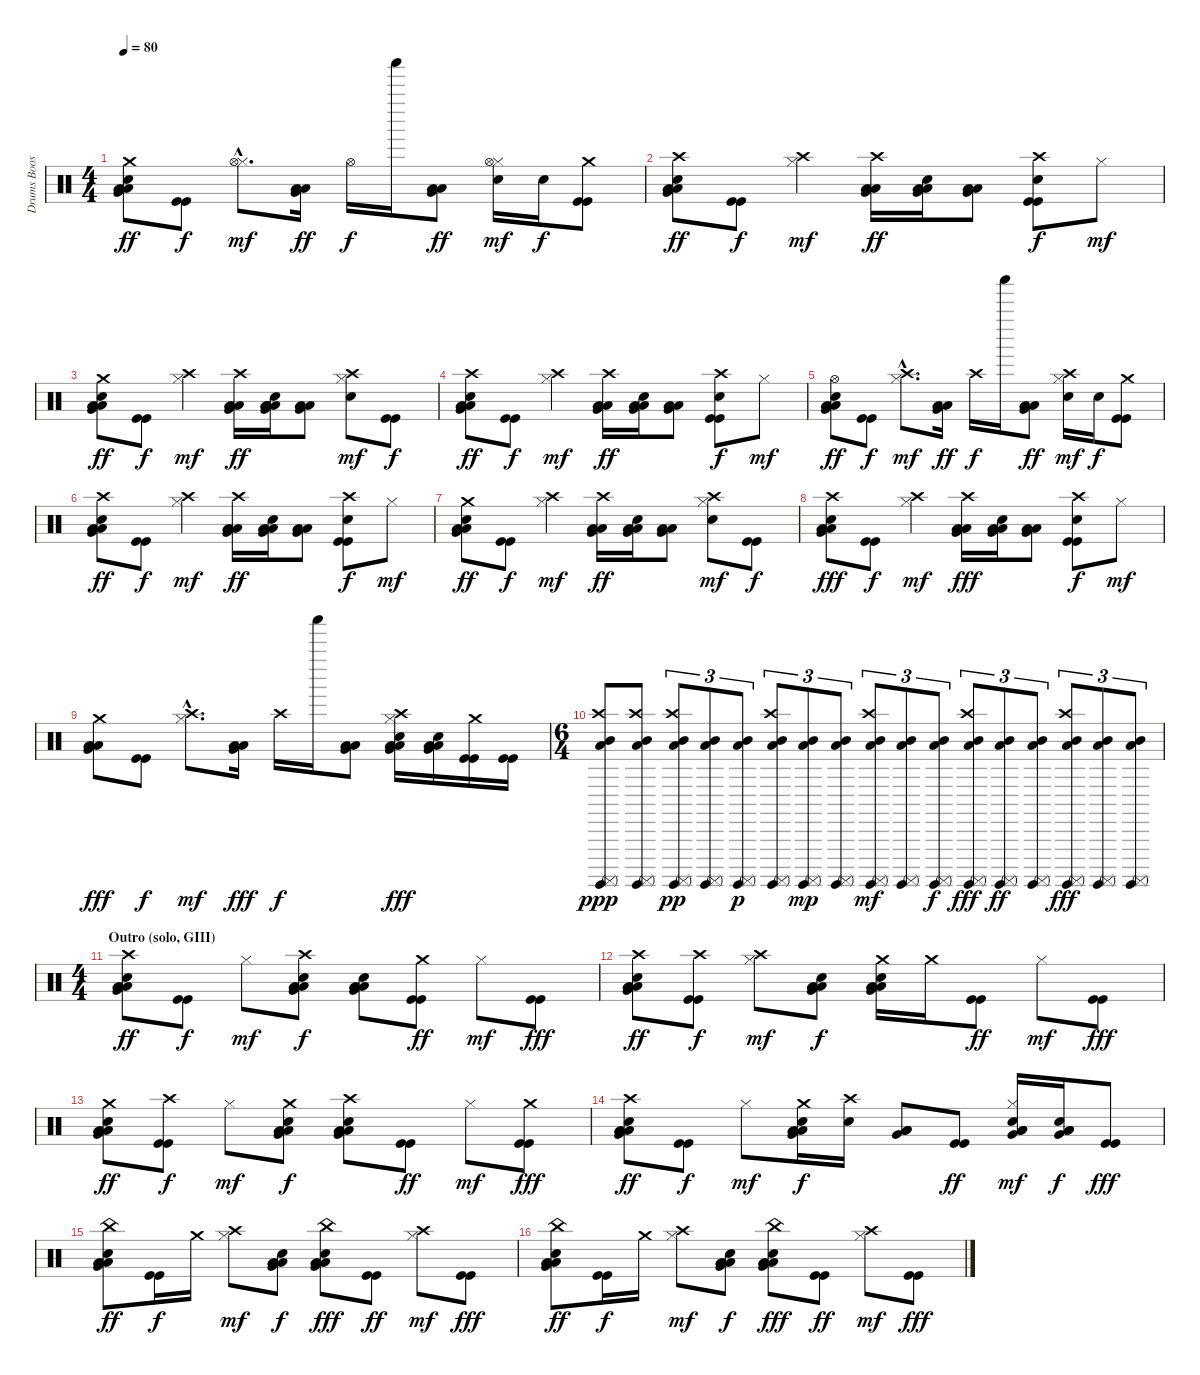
\track ("Drums Boost" "Drums Boos") {instrument percussion}
\staff {score}
\articulation defaults
\ts (4 4)
\tempo 80
\clef neutral
\ks c
("Crash medium (hit)" "Very Low Tom (hit)" "Low Floor Tom (hit)" "Snare (hit) 2" "Low Tom (hit)").8{dy ff} ("Kick (hit)" "Kick (hit)").8{dy f} ("Hi-Hat (closed)"{hac} "Hi-Hat (open)"{hac}).8{d dy mf} ("Very Low Tom (hit)" "Low Floor Tom (hit)" "Low Tom (hit)").16{dy ff} "Hi-Hat (open)".16{dy f} "Shaker (hit)".16 ("Very Low Tom (hit)" "Low Floor Tom (hit)" "Low Tom (hit)").8{dy ff} ("Hi-Hat (closed)" "Hi-Hat (open)" "Snare (hit) 2").16{dy mf} "Snare (hit) 2".16{dy f} ("Crash medium (hit)" "Kick (hit)" "Kick (hit)").8 |
("Crash high (hit)" "Very Low Tom (hit)" "Low Floor Tom (hit)" "Snare (hit) 2" "Low Tom (hit)").8{bd 60 dy ff} ("Kick (hit)" "Kick (hit)").8{dy f} ("Hi-Hat (closed)" "Crash high (hit)").4{dy mf} ("Crash high (hit)" "Very Low Tom (hit)" "Low Floor Tom (hit)" "Low Tom (hit)").16{dy ff} ("Very Low Tom (hit)" "Low Floor Tom (hit)" "Low Tom (hit)" "Snare (hit) 2").16 ("Very Low Tom (hit)" "Low Floor Tom (hit)" "Low Tom (hit)").8 ("Crash high (hit)" "Snare (hit) 2" "Kick (hit)" "Kick (hit)").8{dy f} "Hi-Hat (closed)".8{dy mf} |
("Crash medium (hit)" "Very Low Tom (hit)" "Low Floor Tom (hit)" "Snare (hit) 2" "Low Tom (hit)").8{bd 60 dy ff} ("Kick (hit)" "Kick (hit)").8{dy f} ("Hi-Hat (closed)" "Crash high (hit)").4{dy mf} ("Crash high (hit)" "Very Low Tom (hit)" "Low Floor Tom (hit)" "Low Tom (hit)").16{dy ff} ("Very Low Tom (hit)" "Low Floor Tom (hit)" "Low Tom (hit)" "Low Tom (hit)" "Snare (hit) 2").16 ("Very Low Tom (hit)" "Low Floor Tom (hit)" "Low Tom (hit)").8 ("Hi-Hat (closed)" "Crash high (hit)" "Snare (hit) 2").8{dy mf} ("Kick (hit)" "Kick (hit)").8{dy f} |
("Crash high (hit)" "Very Low Tom (hit)" "Low Floor Tom (hit)" "Snare (hit) 2" "Low Tom (hit)").8{bd 60 dy ff} ("Kick (hit)" "Kick (hit)").8{dy f} ("Hi-Hat (closed)" "Crash high (hit)").4{dy mf} ("Crash high (hit)" "Very Low Tom (hit)" "Low Floor Tom (hit)" "Low Tom (hit)").16{dy ff} ("Very Low Tom (hit)" "Low Floor Tom (hit)" "Low Tom (hit)" "Snare (hit) 2").16 ("Very Low Tom (hit)" "Low Floor Tom (hit)" "Low Tom (hit)").8 ("Crash high (hit)" "Snare (hit) 2" "Kick (hit)" "Kick (hit)").8{dy f} "Hi-Hat (closed)".8{dy mf} |
("Hi-Hat (open)" "Very Low Tom (hit)" "Low Floor Tom (hit)" "Snare (hit) 2" "Low Tom (hit)").8{dy ff} ("Kick (hit)" "Kick (hit)").8{dy f} ("Hi-Hat (closed)"{hac} "Crash high (hit)"{hac}).8{d dy mf} ("Very Low Tom (hit)" "Low Floor Tom (hit)" "Low Tom (hit)").16{dy ff} "Crash high (hit)".16{dy f} "Shaker (hit)".16 ("Very Low Tom (hit)" "Low Floor Tom (hit)" "Low Tom (hit)").8{dy ff} ("Hi-Hat (closed)" "Crash high (hit)" "Snare (hit) 2").16{dy mf} "Snare (hit) 2".16{dy f} ("Crash medium (hit)" "Kick (hit)" "Kick (hit)").8 |
("Crash high (hit)" "Very Low Tom (hit)" "Low Floor Tom (hit)" "Snare (hit) 2" "Low Tom (hit)").8{bd 60 dy ff} ("Kick (hit)" "Kick (hit)").8{dy f} ("Hi-Hat (closed)" "Crash high (hit)").4{dy mf} ("Crash high (hit)" "Very Low Tom (hit)" "Low Floor Tom (hit)" "Low Tom (hit)").16{dy ff} ("Very Low Tom (hit)" "Low Floor Tom (hit)" "Low Tom (hit)" "Snare (hit) 2").16 ("Very Low Tom (hit)" "Low Floor Tom (hit)" "Low Tom (hit)").8 ("Crash high (hit)" "Snare (hit) 2" "Kick (hit)" "Kick (hit)").8{dy f} "Hi-Hat (closed)".8{dy mf} |
("Crash medium (hit)" "Very Low Tom (hit)" "Low Floor Tom (hit)" "Snare (hit) 2" "Low Tom (hit)").8{bd 60 dy ff} ("Kick (hit)" "Kick (hit)").8{dy f} ("Hi-Hat (closed)" "Crash high (hit)").4{dy mf} ("Crash high (hit)" "Very Low Tom (hit)" "Low Floor Tom (hit)" "Low Tom (hit)").16{dy ff} ("Very Low Tom (hit)" "Low Floor Tom (hit)" "Low Tom (hit)" "Snare (hit) 2").16 ("Very Low Tom (hit)" "Low Floor Tom (hit)" "Low Tom (hit)").8 ("Hi-Hat (closed)" "Crash high (hit)" "Snare (hit) 2").8{dy mf} ("Kick (hit)" "Kick (hit)").8{dy f} |
("Crash high (hit)" "Very Low Tom (hit)" "Low Floor Tom (hit)" "Snare (hit) 2" "Low Tom (hit)").8{bd 60 dy fff} ("Kick (hit)" "Kick (hit)").8{dy f} ("Hi-Hat (closed)" "Crash high (hit)").4{dy mf} ("Crash high (hit)" "Very Low Tom (hit)" "Low Floor Tom (hit)" "Low Tom (hit)").16{dy fff} ("Very Low Tom (hit)" "Low Floor Tom (hit)" "Low Tom (hit)" "Snare (hit) 2").16 ("Very Low Tom (hit)" "Low Floor Tom (hit)" "Low Tom (hit)").8 ("Crash high (hit)" "Snare (hit) 2" "Kick (hit)" "Kick (hit)").8{dy f} "Hi-Hat (closed)".8{dy mf} |
("Crash medium (hit)" "Very Low Tom (hit)" "Low Floor Tom (hit)" "Low Tom (hit)").8{dy fff} ("Kick (hit)" "Kick (hit)").8{dy f} ("Hi-Hat (closed)"{hac} "Crash high (hit)"{hac}).8{d dy mf} ("Very Low Tom (hit)" "Low Floor Tom (hit)" "Low Tom (hit)").16{dy fff} "Crash high (hit)".16{dy f} "Shaker (hit)".16 ("Very Low Tom (hit)" "Low Floor Tom (hit)" "Low Tom (hit)").8 ("Hi-Hat (closed)" "Crash high (hit)" "Very Low Tom (hit)" "Low Floor Tom (hit)" "Snare (hit) 2" "Low Tom (hit)").16{dy fff} ("Very Low Tom (hit)" "Low Floor Tom (hit)" "Snare (hit) 2" "Low Tom (hit)").16 ("Crash medium (hit)" "Kick (hit)" "Kick (hit)").16 ("Kick (hit)" "Kick (hit)").16 |
\ts (6 4)
("Crash high (hit)" "Surdo (hit)" "Low Tom (hit)" "Mid Tom (hit)" "Surdo (mute)").8{dy ppp} ("Crash high (hit)" "Surdo (hit)" "Low Tom (hit)" "Mid Tom (hit)" "Surdo (mute)").8 ("Crash high (hit)" "Surdo (hit)" "Low Tom (hit)" "Mid Tom (hit)" "Surdo (mute)").8{tu (3 2) dy pp} ("Surdo (hit)" "Low Tom (hit)" "Mid Tom (hit)" "Surdo (mute)").8{tu (3 2)} ("Surdo (hit)" "Low Tom (hit)" "Mid Tom (hit)" "Surdo (mute)").8{tu (3 2) dy p} ("Crash high (hit)" "Surdo (hit)" "Low Tom (hit)" "Mid Tom (hit)" "Surdo (mute)").8{tu (3 2)} ("Surdo (hit)" "Low Tom (hit)" "Mid Tom (hit)" "Surdo (mute)").8{tu (3 2) dy mp} ("Surdo (hit)" "Low Tom (hit)" "Mid Tom (hit)" "Surdo (mute)").8{tu (3 2)} ("Crash high (hit)" "Surdo (hit)" "Low Tom (hit)" "Mid Tom (hit)" "Surdo (mute)").8{tu (3 2) dy mf} ("Surdo (hit)" "Low Tom (hit)" "Mid Tom (hit)" "Surdo (mute)").8{tu (3 2)} ("Surdo (hit)" "Low Tom (hit)" "Mid Tom (hit)" "Surdo (mute)").8{tu (3 2) dy f} ("Crash high (hit)" "Surdo (hit)" "Low Tom (hit)" "Mid Tom (hit)" "Surdo (mute)").8{tu (3 2) dy fff} ("Surdo (hit)" "Low Tom (hit)" "Mid Tom (hit)" "Surdo (mute)").8{tu (3 2) dy ff} ("Surdo (hit)" "Low Tom (hit)" "Mid Tom (hit)" "Surdo (mute)").8{tu (3 2)} ("Crash high (hit)" "Surdo (hit)" "Low Tom (hit)" "Mid Tom (hit)" "Surdo (mute)").8{tu (3 2) dy fff} ("Surdo (hit)" "Low Tom (hit)" "Mid Tom (hit)" "Surdo (mute)").8{tu (3 2)} ("Surdo (hit)" "Low Tom (hit)" "Mid Tom (hit)" "Surdo (mute)").8{tu (3 2)} |
\ts (4 4)
\section ("" "Outro (solo, GIII)")
("Crash high (hit)" "Very Low Tom (hit)" "Low Floor Tom (hit)" "Low Tom (hit)" "Snare (hit) 2").8{bd 60 dy ff} ("Kick (hit)" "Kick (hit)").8{dy f} "Hi-Hat (closed)".8{dy mf} ("Crash high (hit)" "Very Low Tom (hit)" "Low Floor Tom (hit)" "Low Tom (hit)" "Snare (hit) 2").8{dy f} ("Very Low Tom (hit)" "Low Floor Tom (hit)" "Low Tom (hit)" "Snare (hit) 2").8 ("Crash medium (hit)" "Kick (hit)" "Kick (hit)").8{dy ff} "Hi-Hat (closed)".8{dy mf} ("Kick (hit)" "Kick (hit)").8{dy fff} |
("Crash high (hit)" "Very Low Tom (hit)" "Low Floor Tom (hit)" "Low Tom (hit)" "Snare (hit) 2").8{bd 60 dy ff} ("Crash high (hit)" "Kick (hit)" "Kick (hit)").8{dy f} ("Hi-Hat (closed)" "Crash high (hit)").8{dy mf} ("Very Low Tom (hit)" "Low Floor Tom (hit)" "Low Tom (hit)" "Snare (hit) 2").8{dy f} ("Crash medium (hit)" "Very Low Tom (hit)" "Low Floor Tom (hit)" "Low Tom (hit)" "Snare (hit) 2").16 "Crash medium (hit)".16 ("Kick (hit)" "Kick (hit)").8{dy ff} "Hi-Hat (closed)".8{dy mf} ("Kick (hit)" "Kick (hit)").8{dy fff} |
("Crash medium (hit)" "Very Low Tom (hit)" "Low Floor Tom (hit)" "Low Tom (hit)" "Snare (hit) 2").8{bd 60 dy ff} ("Crash high (hit)" "Kick (hit)" "Kick (hit)").8{dy f} "Hi-Hat (closed)".8{dy mf} ("Crash medium (hit)" "Very Low Tom (hit)" "Low Floor Tom (hit)" "Low Tom (hit)" "Snare (hit) 2").8{dy f} ("Crash high (hit)" "Very Low Tom (hit)" "Low Floor Tom (hit)" "Low Tom (hit)" "Snare (hit) 2").8 ("Kick (hit)" "Kick (hit)").8{dy ff} "Hi-Hat (closed)".8{dy mf} ("Crash medium (hit)" "Kick (hit)" "Kick (hit)").8{dy fff} |
("Crash high (hit)" "Very Low Tom (hit)" "Low Floor Tom (hit)" "Low Tom (hit)" "Snare (hit) 2").8{bd 60 dy ff} ("Kick (hit)" "Kick (hit)").8{dy f} "Hi-Hat (closed)".8{dy mf} ("Crash medium (hit)" "Very Low Tom (hit)" "Low Floor Tom (hit)" "Low Tom (hit)" "Snare (hit) 2").16{dy f} ("Crash high (hit)" "Snare (hit) 2").16 ("Very Low Tom (hit)" "Low Floor Tom (hit)" "Low Tom (hit)").8 ("Kick (hit)" "Kick (hit)").8{dy ff} ("Hi-Hat (closed)" "Very Low Tom (hit)" "Low Floor Tom (hit)" "Electric Snare (hit)" "Low Tom (hit)").16{dy mf} ("Very Low Tom (hit)" "Low Floor Tom (hit)" "Electric Snare (hit)" "Low Tom (hit)").16{dy f} ("Kick (hit)" "Kick (hit)").8{dy fff} |
("China (hit)" "Very Low Tom (hit)" "Low Floor Tom (hit)" "Low Tom (hit)" "Snare (hit) 2").8{bd 60 dy ff} ("Kick (hit)" "Kick (hit)").16{dy f} "Crash medium (hit)".16 ("Hi-Hat (closed)" "Crash high (hit)").8{dy mf} ("Very Low Tom (hit)" "Low Floor Tom (hit)" "Low Tom (hit)" "Snare (hit) 2").8{dy f} ("China (hit)" "Very Low Tom (hit)" "Low Floor Tom (hit)" "Low Tom (hit)" "Snare (hit) 2").8{dy fff} ("Kick (hit)" "Kick (hit)").8{dy ff} ("Hi-Hat (closed)" "Crash high (hit)").8{dy mf} ("Kick (hit)" "Kick (hit)").8{dy fff} |
("China (hit)" "Very Low Tom (hit)" "Low Floor Tom (hit)" "Low Tom (hit)" "Snare (hit) 2").8{bd 60 dy ff} ("Kick (hit)" "Kick (hit)").16{dy f} "Crash medium (hit)".16 ("Hi-Hat (closed)" "Crash high (hit)").8{dy mf} ("Very Low Tom (hit)" "Low Floor Tom (hit)" "Low Tom (hit)" "Snare (hit) 2").8{dy f} ("China (hit)" "Very Low Tom (hit)" "Low Floor Tom (hit)" "Low Tom (hit)" "Snare (hit) 2").8{dy fff} ("Kick (hit)" "Kick (hit)").8{dy ff} ("Hi-Hat (closed)" "Crash high (hit)").8{dy mf} ("Kick (hit)" "Kick (hit)").8{dy fff}
